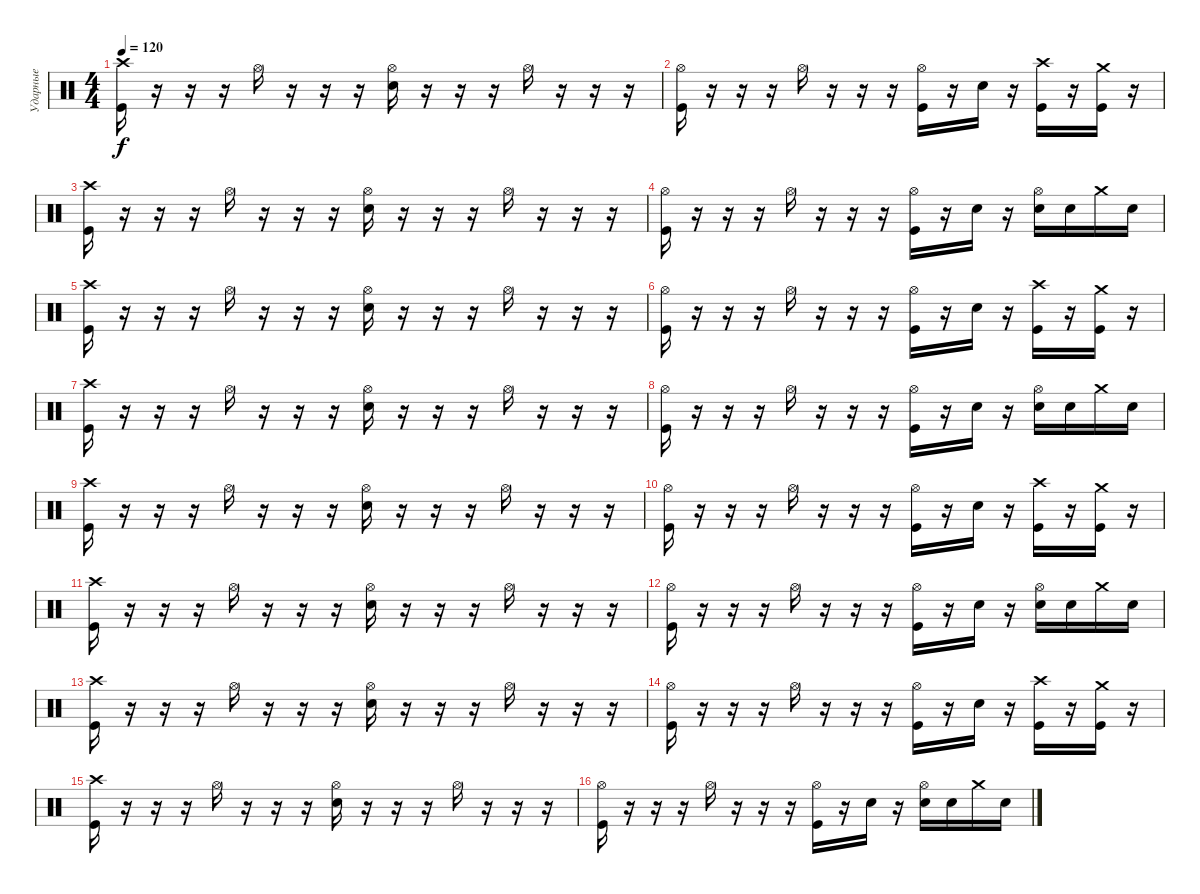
\track ("Ударные" "Ударные") {instrument percussion}
\staff {score}
\articulation defaults
\ts (4 4)
\tempo 120
\clef neutral
\ks c
("Crash high (hit)" "Kick (hit)").16{dy f} r.16 r.16 r.16 "Hi-Hat (open)".16 r.16 r.16 r.16 ("Hi-Hat (open)" "Electric Snare (hit)").16 r.16 r.16 r.16 "Hi-Hat (open)".16 r.16 r.16 r.16 |
("Hi-Hat (open)" "Kick (hit)").16 r.16 r.16 r.16 "Hi-Hat (open)".16 r.16 r.16 r.16 ("Hi-Hat (open)" "Kick (hit)").16 r.16 "Electric Snare (hit)".16 r.16 ("Crash high (hit)" "Kick (hit)").16 r.16 ("Crash medium (hit)" "Kick (hit)").16 r.16 |
("Crash high (hit)" "Kick (hit)").16 r.16 r.16 r.16 "Hi-Hat (open)".16 r.16 r.16 r.16 ("Hi-Hat (open)" "Electric Snare (hit)").16 r.16 r.16 r.16 "Hi-Hat (open)".16 r.16 r.16 r.16 |
("Hi-Hat (open)" "Kick (hit)").16 r.16 r.16 r.16 "Hi-Hat (open)".16 r.16 r.16 r.16 ("Hi-Hat (open)" "Kick (hit)").16 r.16 "Electric Snare (hit)".16 r.16 ("Hi-Hat (open)" "Electric Snare (hit)").16 "Electric Snare (hit)".16 "Crash medium (hit)".16 "Electric Snare (hit)".16 |
("Crash high (hit)" "Kick (hit)").16 r.16 r.16 r.16 "Hi-Hat (open)".16 r.16 r.16 r.16 ("Hi-Hat (open)" "Electric Snare (hit)").16 r.16 r.16 r.16 "Hi-Hat (open)".16 r.16 r.16 r.16 |
("Hi-Hat (open)" "Kick (hit)").16 r.16 r.16 r.16 "Hi-Hat (open)".16 r.16 r.16 r.16 ("Hi-Hat (open)" "Kick (hit)").16 r.16 "Electric Snare (hit)".16 r.16 ("Crash high (hit)" "Kick (hit)").16 r.16 ("Crash medium (hit)" "Kick (hit)").16 r.16 |
("Crash high (hit)" "Kick (hit)").16 r.16 r.16 r.16 "Hi-Hat (open)".16 r.16 r.16 r.16 ("Hi-Hat (open)" "Electric Snare (hit)").16 r.16 r.16 r.16 "Hi-Hat (open)".16 r.16 r.16 r.16 |
("Hi-Hat (open)" "Kick (hit)").16 r.16 r.16 r.16 "Hi-Hat (open)".16 r.16 r.16 r.16 ("Hi-Hat (open)" "Kick (hit)").16 r.16 "Electric Snare (hit)".16 r.16 ("Hi-Hat (open)" "Electric Snare (hit)").16 "Electric Snare (hit)".16 "Crash medium (hit)".16 "Electric Snare (hit)".16 |
("Crash high (hit)" "Kick (hit)").16 r.16 r.16 r.16 "Hi-Hat (open)".16 r.16 r.16 r.16 ("Hi-Hat (open)" "Electric Snare (hit)").16 r.16 r.16 r.16 "Hi-Hat (open)".16 r.16 r.16 r.16 |
("Hi-Hat (open)" "Kick (hit)").16 r.16 r.16 r.16 "Hi-Hat (open)".16 r.16 r.16 r.16 ("Hi-Hat (open)" "Kick (hit)").16 r.16 "Electric Snare (hit)".16 r.16 ("Crash high (hit)" "Kick (hit)").16 r.16 ("Crash medium (hit)" "Kick (hit)").16 r.16 |
("Crash high (hit)" "Kick (hit)").16 r.16 r.16 r.16 "Hi-Hat (open)".16 r.16 r.16 r.16 ("Hi-Hat (open)" "Electric Snare (hit)").16 r.16 r.16 r.16 "Hi-Hat (open)".16 r.16 r.16 r.16 |
("Hi-Hat (open)" "Kick (hit)").16 r.16 r.16 r.16 "Hi-Hat (open)".16 r.16 r.16 r.16 ("Hi-Hat (open)" "Kick (hit)").16 r.16 "Electric Snare (hit)".16 r.16 ("Hi-Hat (open)" "Electric Snare (hit)").16 "Electric Snare (hit)".16 "Crash medium (hit)".16 "Electric Snare (hit)".16 |
("Crash high (hit)" "Kick (hit)").16 r.16 r.16 r.16 "Hi-Hat (open)".16 r.16 r.16 r.16 ("Hi-Hat (open)" "Electric Snare (hit)").16 r.16 r.16 r.16 "Hi-Hat (open)".16 r.16 r.16 r.16 |
("Hi-Hat (open)" "Kick (hit)").16 r.16 r.16 r.16 "Hi-Hat (open)".16 r.16 r.16 r.16 ("Hi-Hat (open)" "Kick (hit)").16 r.16 "Electric Snare (hit)".16 r.16 ("Crash high (hit)" "Kick (hit)").16 r.16 ("Crash medium (hit)" "Kick (hit)").16 r.16 |
("Crash high (hit)" "Kick (hit)").16 r.16 r.16 r.16 "Hi-Hat (open)".16 r.16 r.16 r.16 ("Hi-Hat (open)" "Electric Snare (hit)").16 r.16 r.16 r.16 "Hi-Hat (open)".16 r.16 r.16 r.16 |
("Hi-Hat (open)" "Kick (hit)").16 r.16 r.16 r.16 "Hi-Hat (open)".16 r.16 r.16 r.16 ("Hi-Hat (open)" "Kick (hit)").16 r.16 "Electric Snare (hit)".16 r.16 ("Hi-Hat (open)" "Electric Snare (hit)").16 "Electric Snare (hit)".16 "Crash medium (hit)".16 "Electric Snare (hit)".16
